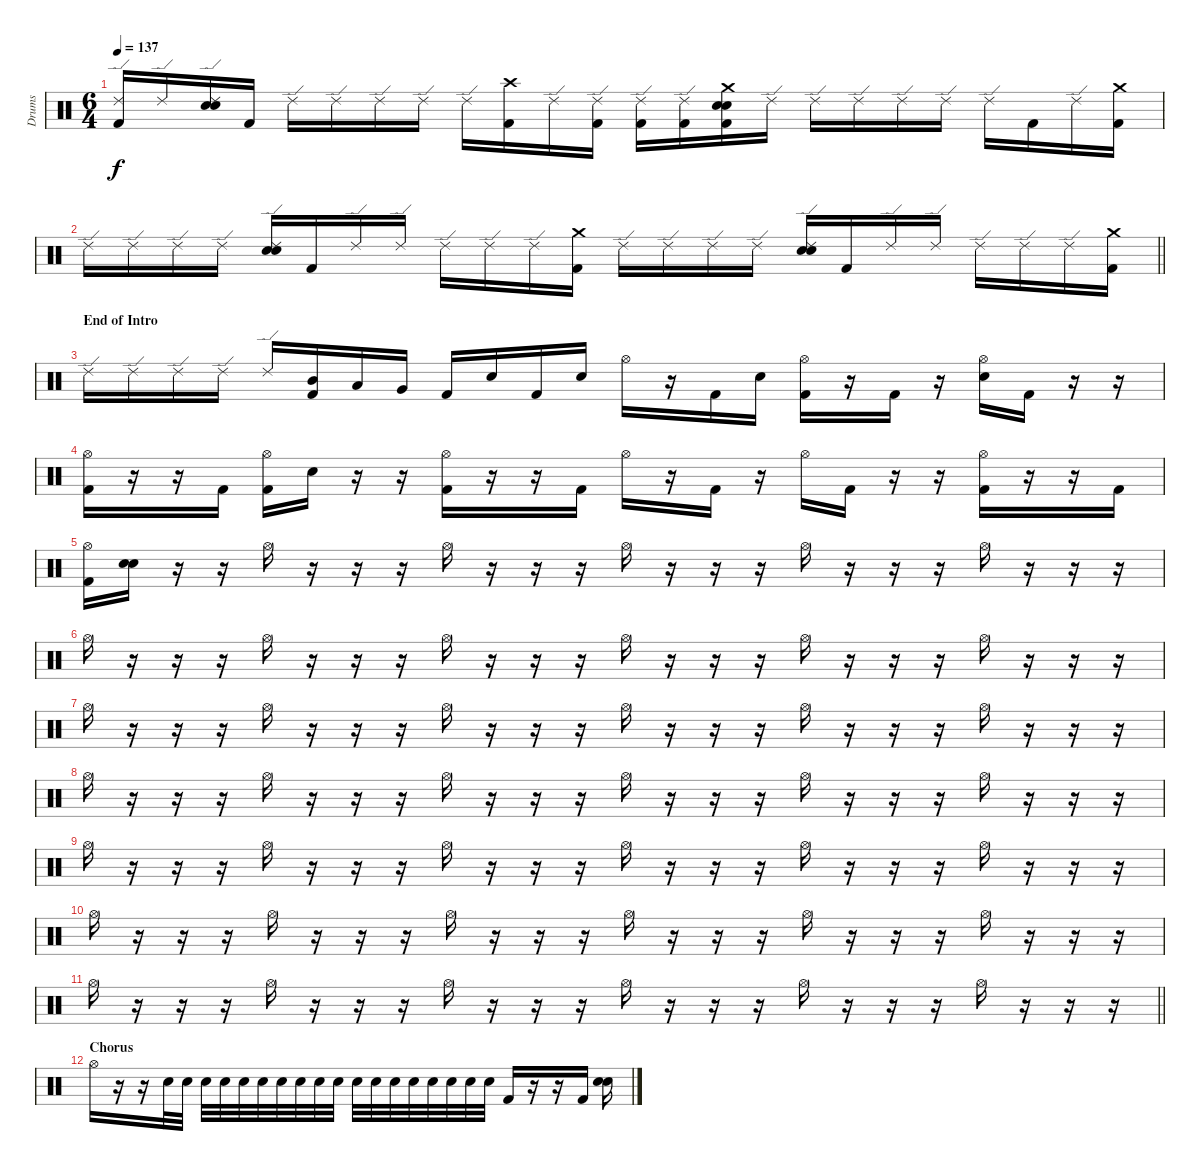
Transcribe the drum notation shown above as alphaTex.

\track ("Drums" "Drums") {instrument percussion}
\staff {score}
\articulation defaults
\ts (6 4)
\tempo 137
\clef neutral
\ks c
("Ride (edge) 2" "Kick (hit) 2").16{dy f} "Ride (edge) 2".16 ("Ride (edge) 2" "Snare (hit) 2" "Snare (hit) 2").16 "Kick (hit) 2".16 "Ride (edge) 2".16 "Ride (edge) 2".16 "Ride (edge) 2".16 "Ride (edge) 2".16 "Ride (edge) 2".16 ("Crash high (hit)" "Kick (hit) 2").16 "Ride (edge) 2".16 ("Ride (edge) 2" "Kick (hit) 2").16 ("Ride (edge) 2" "Kick (hit) 2").16 ("Ride (edge) 2" "Kick (hit) 2").16 ("Crash medium (hit)" "Snare (hit) 2" "Snare (hit) 2" "Kick (hit) 2").16 "Ride (edge) 2".16 "Ride (edge) 2".16 "Ride (edge) 2".16 "Ride (edge) 2".16 "Ride (edge) 2".16 "Ride (edge) 2".16 "Kick (hit) 2".16 "Ride (edge) 2".16 ("Crash medium (hit)" "Kick (hit) 2").16 |
\barLineRight lightlight "Ride (edge) 2".16 "Ride (edge) 2".16 "Ride (edge) 2".16 "Ride (edge) 2".16
("Ride (edge) 2" "Snare (hit) 2" "Snare (hit) 2").16 "Kick (hit) 2".16 "Ride (edge) 2".16 "Ride (edge) 2".16 "Ride (edge) 2".16 "Ride (edge) 2".16 "Ride (edge) 2".16 ("Crash medium (hit)" "Kick (hit) 2").16 "Ride (edge) 2".16 "Ride (edge) 2".16 "Ride (edge) 2".16 "Ride (edge) 2".16 ("Ride (edge) 2" "Snare (hit) 2" "Snare (hit) 2").16 "Kick (hit) 2".16 "Ride (edge) 2".16 "Ride (edge) 2".16 "Ride (edge) 2".16 "Ride (edge) 2".16 "Ride (edge) 2".16 ("Crash medium (hit)" "Kick (hit) 2").16 |
\section ("" "End of Intro")
"Ride (edge) 2".16 "Ride (edge) 2".16 "Ride (edge) 2".16 "Ride (edge) 2".16 "Ride (edge) 2".16 ("Mid Tom (hit)" "Kick (hit) 2").16 "Low Tom (hit)".16 "Very Low Tom (hit)".16 "Kick (hit) 2".16 "Snare (hit) 2".16 "Kick (hit) 2".16 "Snare (hit) 2".16 "Hi-Hat (open)".16 r.16 "Kick (hit) 2".16 "Snare (hit) 2".16 ("Hi-Hat (open)" "Kick (hit) 2").16 r.16 "Kick (hit) 2".16 r.16 ("Hi-Hat (open)" "Snare (hit) 2").16 "Kick (hit) 2".16 r.16 r.16 |
("Hi-Hat (open)" "Kick (hit) 2").16 r.16 r.16 "Kick (hit) 2".16 ("Hi-Hat (open)" "Kick (hit) 2").16 "Snare (hit) 2".16 r.16 r.16 ("Hi-Hat (open)" "Kick (hit) 2").16 r.16 r.16 "Kick (hit) 2".16 "Hi-Hat (open)".16 r.16 "Kick (hit) 2".16 r.16 "Hi-Hat (open)".16 "Kick (hit) 2".16 r.16 r.16 ("Hi-Hat (open)" "Kick (hit) 2").16 r.16 r.16 "Kick (hit) 2".16 |
("Hi-Hat (open)" "Kick (hit) 2").16 ("Snare (hit) 2" "Snare (hit) 2").16 r.16 r.16 "Hi-Hat (open)".16 r.16 r.16 r.16 "Hi-Hat (open)".16 r.16 r.16 r.16 "Hi-Hat (open)".16 r.16 r.16 r.16 "Hi-Hat (open)".16 r.16 r.16 r.16 "Hi-Hat (open)".16 r.16 r.16 r.16 |
"Hi-Hat (open)".16 r.16 r.16 r.16 "Hi-Hat (open)".16 r.16 r.16 r.16 "Hi-Hat (open)".16 r.16 r.16 r.16 "Hi-Hat (open)".16 r.16 r.16 r.16 "Hi-Hat (open)".16 r.16 r.16 r.16 "Hi-Hat (open)".16 r.16 r.16 r.16 |
"Hi-Hat (open)".16 r.16 r.16 r.16 "Hi-Hat (open)".16 r.16 r.16 r.16 "Hi-Hat (open)".16 r.16 r.16 r.16 "Hi-Hat (open)".16 r.16 r.16 r.16 "Hi-Hat (open)".16 r.16 r.16 r.16 "Hi-Hat (open)".16 r.16 r.16 r.16 |
"Hi-Hat (open)".16 r.16 r.16 r.16 "Hi-Hat (open)".16 r.16 r.16 r.16 "Hi-Hat (open)".16 r.16 r.16 r.16 "Hi-Hat (open)".16 r.16 r.16 r.16 "Hi-Hat (open)".16 r.16 r.16 r.16 "Hi-Hat (open)".16 r.16 r.16 r.16 |
"Hi-Hat (open)".16 r.16 r.16 r.16 "Hi-Hat (open)".16 r.16 r.16 r.16 "Hi-Hat (open)".16 r.16 r.16 r.16 "Hi-Hat (open)".16 r.16 r.16 r.16 "Hi-Hat (open)".16 r.16 r.16 r.16 "Hi-Hat (open)".16 r.16 r.16 r.16 |
"Hi-Hat (open)".16 r.16 r.16 r.16 "Hi-Hat (open)".16 r.16 r.16 r.16 "Hi-Hat (open)".16 r.16 r.16 r.16 "Hi-Hat (open)".16 r.16 r.16 r.16 "Hi-Hat (open)".16 r.16 r.16 r.16 "Hi-Hat (open)".16 r.16 r.16 r.16 |
\barLineRight lightlight "Hi-Hat (open)".16
r.16 r.16 r.16 "Hi-Hat (open)".16 r.16 r.16 r.16 "Hi-Hat (open)".16 r.16 r.16 r.16 "Hi-Hat (open)".16 r.16 r.16 r.16 "Hi-Hat (open)".16 r.16 r.16 r.16 "Hi-Hat (open)".16 r.16 r.16 r.16 |
\section ("" "Chorus")
"Hi-Hat (open)".16 r.16 r.16 "Snare (hit) 2".32 "Snare (hit) 2".32 "Snare (hit) 2".32 "Snare (hit) 2".32 "Snare (hit) 2".32 "Snare (hit) 2".32 "Snare (hit) 2".32 "Snare (hit) 2".32 "Snare (hit) 2".32 "Snare (hit) 2".32 "Snare (hit) 2".32 "Snare (hit) 2".32 "Snare (hit) 2".32 "Snare (hit) 2".32 "Snare (hit) 2".32 "Snare (hit) 2".32 "Snare (hit) 2".32 "Snare (hit) 2".32 "Kick (hit) 2".16 r.16 r.16 "Kick (hit) 2".16 ("Snare (hit) 2" "Snare (hit) 2").16
